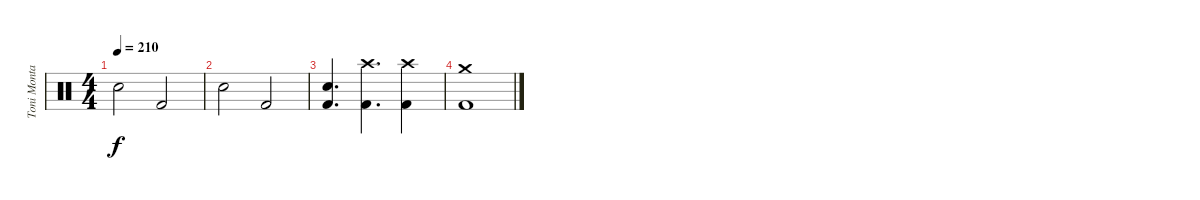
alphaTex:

\track ("Toni Montalvo" "Toni Monta") {solo instrument percussion}
\staff {score}
\articulation defaults
\ts (4 4)
\tempo 210
\clef neutral
\ks c "Electric Snare (hit)".2{dy f} "Kick (hit) 2".2
|
"Electric Snare (hit)".2 "Kick (hit) 2".2 |
("Electric Snare (hit)" "Kick (hit) 2").4{d} ("Crash high (hit)" "Kick (hit) 2").4{d} ("Crash high (hit)" "Kick (hit) 2").4 |
("Crash medium (hit)" "Kick (hit) 2").1
